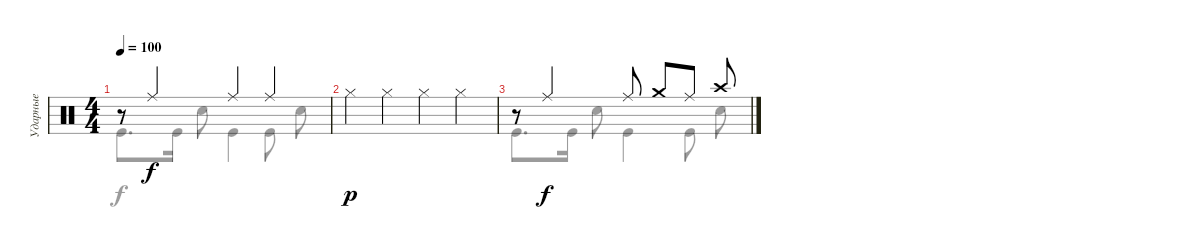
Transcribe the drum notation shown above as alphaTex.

\track ("Ударные" "Ударные") {instrument percussion}
\staff {score}
\articulation defaults
\voice
\ts (4 4)
\tempo 100
\clef neutral
\ks c
r.8{dy f} "Ride (middle)".4 "Ride (middle)".4 "Ride (middle)".4 |
"Hi-Hat (closed)".4{dy p} "Hi-Hat (closed)".4 "Hi-Hat (closed)".4 "Hi-Hat (closed)".4 |
r.8 "Ride (middle)".4{dy f} "Ride (middle)".8 "Crash medium (hit)".8 "Ride (middle)".8 "Crash high (hit)".8 |
|
|
\voice
\clef neutral
\ottava regular
\simile none
\ks c "Kick (hit)".8{d dy f} "Kick (hit)".16 "Snare (hit) 2".8 "Kick (hit)".4 "Kick (hit)".8 "Snare (hit) 2".8
|
|
"Kick (hit)".8{d} "Kick (hit)".16 "Snare (hit) 2".8 "Kick (hit)".4 "Kick (hit)".8 "Snare (hit) 2".8 |
|
|
